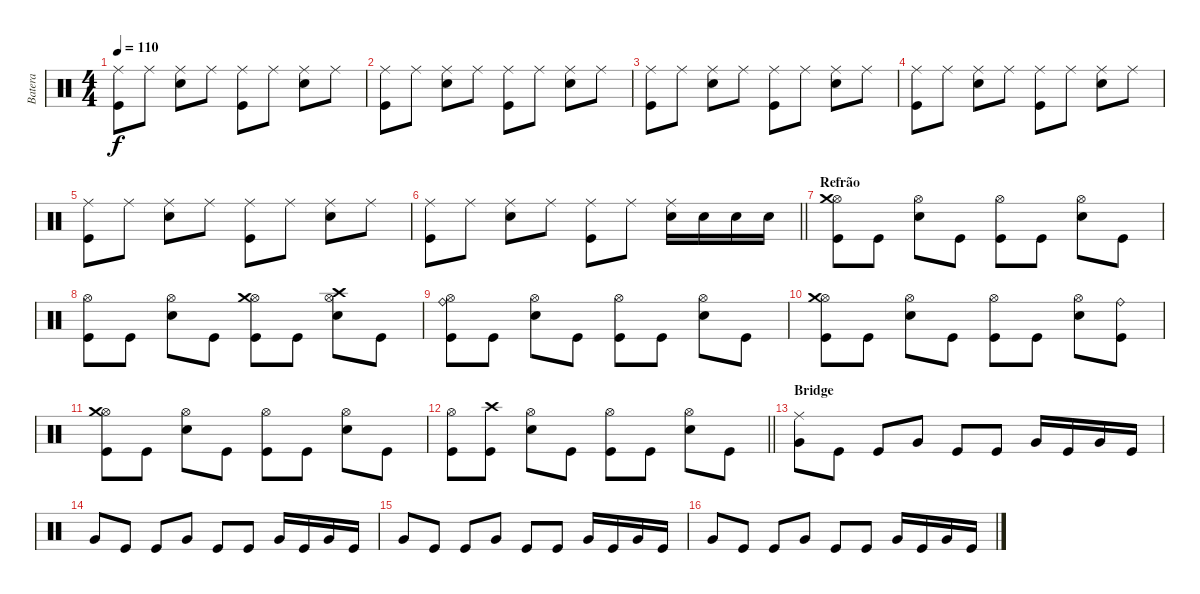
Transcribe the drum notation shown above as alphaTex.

\track ("Batera" "Batera") {instrument percussion}
\staff {score}
\articulation defaults
\ts (4 4)
\tempo 110
\clef neutral
\ks c
("Ride (middle)" "Kick (hit)").8{dy f} "Ride (middle)".8 ("Ride (middle)" "Snare (hit) 2").8 "Ride (middle)".8 ("Ride (middle)" "Kick (hit)").8 "Ride (middle)".8 ("Ride (middle)" "Snare (hit) 2").8 "Ride (middle)".8 |
("Ride (middle)" "Kick (hit)").8 "Ride (middle)".8 ("Ride (middle)" "Snare (hit) 2").8 "Ride (middle)".8 ("Ride (middle)" "Kick (hit)").8 "Ride (middle)".8 ("Ride (middle)" "Snare (hit) 2").8 "Ride (middle)".8 |
("Ride (middle)" "Kick (hit)").8 "Ride (middle)".8 ("Ride (middle)" "Snare (hit) 2").8 "Ride (middle)".8 ("Ride (middle)" "Kick (hit)").8 "Ride (middle)".8 ("Ride (middle)" "Snare (hit) 2").8 "Ride (middle)".8 |
("Ride (middle)" "Kick (hit)").8 "Ride (middle)".8 ("Ride (middle)" "Snare (hit) 2").8 "Ride (middle)".8 ("Ride (middle)" "Kick (hit)").8 "Ride (middle)".8 ("Ride (middle)" "Snare (hit) 2").8 "Ride (middle)".8 |
("Ride (middle)" "Kick (hit)").8 "Ride (middle)".8 ("Ride (middle)" "Snare (hit) 2").8 "Ride (middle)".8 ("Ride (middle)" "Kick (hit)").8 "Ride (middle)".8 ("Ride (middle)" "Snare (hit) 2").8 "Ride (middle)".8 |
\barLineRight lightlight
("Ride (middle)" "Kick (hit)").8 "Ride (middle)".8 ("Ride (middle)" "Snare (hit) 2").8 "Ride (middle)".8 ("Ride (middle)" "Kick (hit)").8 "Ride (middle)".8 ("Ride (middle)" "Snare (hit) 2").16 "Snare (hit) 2".16 "Snare (hit) 2".16 "Snare (hit) 2".16 |
\section ("" "Refrão")
("Hi-Hat (open)" "Kick (hit)" "Crash medium (hit)").8 "Kick (hit)".8 ("Hi-Hat (open)" "Snare (hit) 2").8 "Kick (hit)".8 ("Hi-Hat (open)" "Kick (hit)").8 "Kick (hit)".8 ("Hi-Hat (open)" "Snare (hit) 2").8 "Kick (hit)".8 |
("Hi-Hat (open)" "Kick (hit)").8 "Kick (hit)".8 ("Hi-Hat (open)" "Snare (hit) 2").8 "Kick (hit)".8 ("Hi-Hat (open)" "Kick (hit)" "Crash medium (hit)").8 "Kick (hit)".8 ("Hi-Hat (open)" "Snare (hit) 2" "Crash high (hit)").8 "Kick (hit)".8 |
("Hi-Hat (open)" "Kick (hit)" "Ride (bell)").8 "Kick (hit)".8 ("Hi-Hat (open)" "Snare (hit) 2").8 "Kick (hit)".8 ("Hi-Hat (open)" "Kick (hit)").8 "Kick (hit)".8 ("Hi-Hat (open)" "Snare (hit) 2").8 "Kick (hit)".8 |
("Hi-Hat (open)" "Kick (hit)" "Crash medium (hit)").8 "Kick (hit)".8 ("Hi-Hat (open)" "Snare (hit) 2").8 "Kick (hit)".8 ("Hi-Hat (open)" "Kick (hit)").8 "Kick (hit)".8 ("Hi-Hat (open)" "Snare (hit) 2").8 ("Kick (hit)" "Ride (bell)").8 |
("Hi-Hat (open)" "Kick (hit)" "Crash medium (hit)").8 "Kick (hit)".8 ("Hi-Hat (open)" "Snare (hit) 2").8 "Kick (hit)".8 ("Hi-Hat (open)" "Kick (hit)").8 "Kick (hit)".8 ("Hi-Hat (open)" "Snare (hit) 2").8 "Kick (hit)".8 |
\barLineRight lightlight
("Hi-Hat (open)" "Kick (hit)").8 ("Kick (hit)" "Crash high (hit)").8 ("Hi-Hat (open)" "Snare (hit) 2").8 "Kick (hit)".8 ("Hi-Hat (open)" "Kick (hit)").8 "Kick (hit)".8 ("Hi-Hat (open)" "Snare (hit) 2").8 "Kick (hit)".8 |
\section ("" "Bridge")
("Very Low Tom (hit)" "Ride (middle)").8 "Kick (hit)".8 "Kick (hit)".8 "Very Low Tom (hit)".8 "Kick (hit)".8 "Kick (hit)".8 "Very Low Tom (hit)".16 "Kick (hit)".16 "Very Low Tom (hit)".16 "Kick (hit)".16 |
"Very Low Tom (hit)".8 "Kick (hit)".8 "Kick (hit)".8 "Very Low Tom (hit)".8 "Kick (hit)".8 "Kick (hit)".8 "Very Low Tom (hit)".16 "Kick (hit)".16 "Very Low Tom (hit)".16 "Kick (hit)".16 |
"Very Low Tom (hit)".8 "Kick (hit)".8 "Kick (hit)".8 "Very Low Tom (hit)".8 "Kick (hit)".8 "Kick (hit)".8 "Very Low Tom (hit)".16 "Kick (hit)".16 "Very Low Tom (hit)".16 "Kick (hit)".16 |
"Very Low Tom (hit)".8 "Kick (hit)".8 "Kick (hit)".8 "Very Low Tom (hit)".8 "Kick (hit)".8 "Kick (hit)".8 "Very Low Tom (hit)".16 "Kick (hit)".16 "Very Low Tom (hit)".16 "Kick (hit)".16
